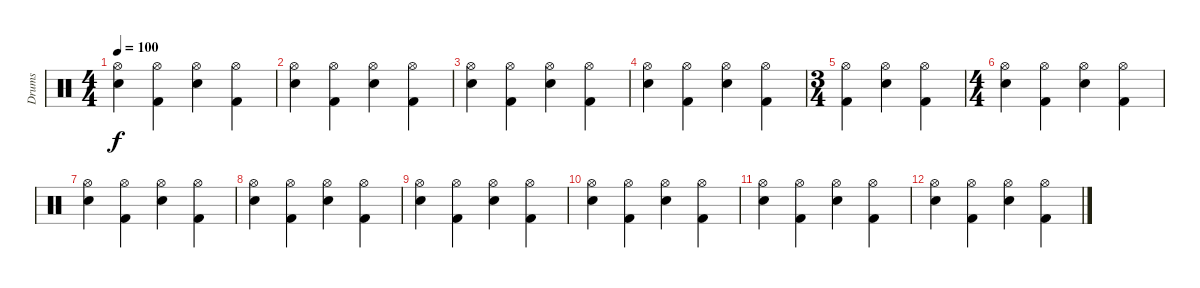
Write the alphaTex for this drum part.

\track ("Drums" "Drums") {instrument percussion}
\staff {score}
\articulation defaults
\ts (4 4)
\tempo 100
\clef neutral
\ks c
("Hi-Hat (open)" "Electric Snare (hit)").4{dy f} ("Hi-Hat (open)" "Kick (hit) 2").4 ("Hi-Hat (open)" "Electric Snare (hit)").4 ("Hi-Hat (open)" "Kick (hit) 2").4 |
("Hi-Hat (open)" "Electric Snare (hit)").4 ("Hi-Hat (open)" "Kick (hit) 2").4 ("Hi-Hat (open)" "Electric Snare (hit)").4 ("Hi-Hat (open)" "Kick (hit) 2").4 |
("Hi-Hat (open)" "Electric Snare (hit)").4 ("Hi-Hat (open)" "Kick (hit) 2").4 ("Hi-Hat (open)" "Electric Snare (hit)").4 ("Hi-Hat (open)" "Kick (hit) 2").4 |
("Hi-Hat (open)" "Electric Snare (hit)").4 ("Hi-Hat (open)" "Kick (hit) 2").4 ("Hi-Hat (open)" "Electric Snare (hit)").4 ("Hi-Hat (open)" "Kick (hit) 2").4 |
\ts (3 4)
("Hi-Hat (open)" "Kick (hit) 2").4 ("Hi-Hat (open)" "Electric Snare (hit)").4 ("Hi-Hat (open)" "Kick (hit) 2").4 |
\ts (4 4)
("Hi-Hat (open)" "Electric Snare (hit)").4 ("Hi-Hat (open)" "Kick (hit) 2").4 ("Hi-Hat (open)" "Electric Snare (hit)").4 ("Hi-Hat (open)" "Kick (hit) 2").4 |
("Hi-Hat (open)" "Electric Snare (hit)").4 ("Hi-Hat (open)" "Kick (hit) 2").4 ("Hi-Hat (open)" "Electric Snare (hit)").4 ("Hi-Hat (open)" "Kick (hit) 2").4 |
("Hi-Hat (open)" "Electric Snare (hit)").4 ("Hi-Hat (open)" "Kick (hit) 2").4 ("Hi-Hat (open)" "Electric Snare (hit)").4 ("Hi-Hat (open)" "Kick (hit) 2").4 |
("Hi-Hat (open)" "Electric Snare (hit)").4 ("Hi-Hat (open)" "Kick (hit) 2").4 ("Hi-Hat (open)" "Electric Snare (hit)").4 ("Hi-Hat (open)" "Kick (hit) 2").4 |
("Hi-Hat (open)" "Electric Snare (hit)").4 ("Hi-Hat (open)" "Kick (hit) 2").4 ("Hi-Hat (open)" "Electric Snare (hit)").4 ("Hi-Hat (open)" "Kick (hit) 2").4 |
("Hi-Hat (open)" "Electric Snare (hit)").4 ("Hi-Hat (open)" "Kick (hit) 2").4 ("Hi-Hat (open)" "Electric Snare (hit)").4 ("Hi-Hat (open)" "Kick (hit) 2").4 |
("Hi-Hat (open)" "Electric Snare (hit)").4 ("Hi-Hat (open)" "Kick (hit) 2").4 ("Hi-Hat (open)" "Electric Snare (hit)").4 ("Hi-Hat (open)" "Kick (hit) 2").4
